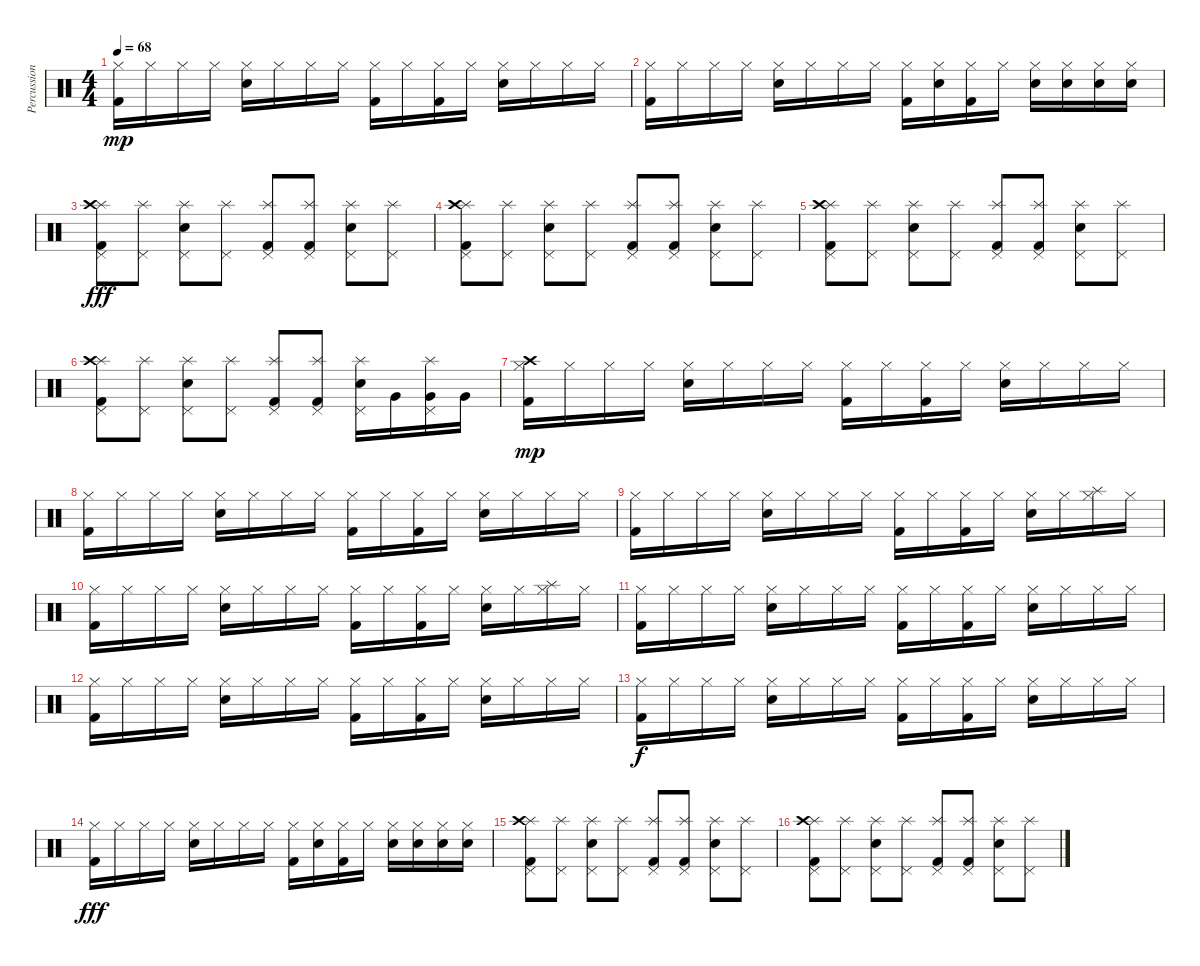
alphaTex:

\track ("Percussion" "Percussion") {instrument percussion}
\staff {score}
\articulation defaults
\ts (4 4)
\tempo 68
\clef neutral
\ks c
("Hi-Hat (closed)" "Kick (hit) 2").16{dy mp} "Hi-Hat (closed)".16 "Hi-Hat (closed)".16 "Hi-Hat (closed)".16 ("Hi-Hat (closed)" "Electric Snare (hit)").16 "Hi-Hat (closed)".16 "Hi-Hat (closed)".16 "Hi-Hat (closed)".16 ("Hi-Hat (closed)" "Kick (hit) 2").16 "Hi-Hat (closed)".16 ("Hi-Hat (closed)" "Kick (hit) 2").16 "Hi-Hat (closed)".16 ("Hi-Hat (closed)" "Electric Snare (hit)").16 "Hi-Hat (closed)".16 "Hi-Hat (closed)".16 "Hi-Hat (closed)".16 |
("Hi-Hat (closed)" "Kick (hit) 2").16 "Hi-Hat (closed)".16 "Hi-Hat (closed)".16 "Hi-Hat (closed)".16 ("Hi-Hat (closed)" "Electric Snare (hit)").16 "Hi-Hat (closed)".16 "Hi-Hat (closed)".16 "Hi-Hat (closed)".16 ("Hi-Hat (closed)" "Kick (hit) 2").16 ("Hi-Hat (closed)" "Electric Snare (hit)").16 ("Hi-Hat (closed)" "Kick (hit) 2").16 "Hi-Hat (closed)".16 ("Hi-Hat (closed)" "Electric Snare (hit)").16 ("Hi-Hat (closed)" "Electric Snare (hit)").16 ("Hi-Hat (closed)" "Electric Snare (hit)").16 ("Hi-Hat (closed)" "Electric Snare (hit)").16 |
("Splash (hit)" "Crash high (hit)" "Pedal Hi-Hat (hit)" "Kick (hit) 2").8{dy fff} ("Splash (hit)" "Pedal Hi-Hat (hit)").8 ("Splash (hit)" "Pedal Hi-Hat (hit)" "Electric Snare (hit)").8 ("Splash (hit)" "Pedal Hi-Hat (hit)").8 ("Splash (hit)" "Pedal Hi-Hat (hit)" "Kick (hit) 2").8 ("Splash (hit)" "Pedal Hi-Hat (hit)" "Kick (hit) 2").8 ("Splash (hit)" "Pedal Hi-Hat (hit)" "Electric Snare (hit)").8 ("Splash (hit)" "Pedal Hi-Hat (hit)").8 |
("Splash (hit)" "Crash high (hit)" "Pedal Hi-Hat (hit)" "Kick (hit) 2").8 ("Splash (hit)" "Pedal Hi-Hat (hit)").8 ("Splash (hit)" "Pedal Hi-Hat (hit)" "Electric Snare (hit)").8 ("Splash (hit)" "Pedal Hi-Hat (hit)").8 ("Splash (hit)" "Pedal Hi-Hat (hit)" "Kick (hit) 2").8 ("Splash (hit)" "Pedal Hi-Hat (hit)" "Kick (hit) 2").8 ("Splash (hit)" "Pedal Hi-Hat (hit)" "Electric Snare (hit)").8 ("Splash (hit)" "Pedal Hi-Hat (hit)").8 |
("Splash (hit)" "Crash high (hit)" "Pedal Hi-Hat (hit)" "Kick (hit) 2").8 ("Splash (hit)" "Pedal Hi-Hat (hit)").8 ("Splash (hit)" "Pedal Hi-Hat (hit)" "Electric Snare (hit)").8 ("Splash (hit)" "Pedal Hi-Hat (hit)").8 ("Splash (hit)" "Pedal Hi-Hat (hit)" "Kick (hit) 2").8 ("Splash (hit)" "Pedal Hi-Hat (hit)" "Kick (hit) 2").8 ("Splash (hit)" "Pedal Hi-Hat (hit)" "Electric Snare (hit)").8 ("Splash (hit)" "Pedal Hi-Hat (hit)").8 |
("Splash (hit)" "Crash high (hit)" "Pedal Hi-Hat (hit)" "Kick (hit) 2").8 ("Splash (hit)" "Pedal Hi-Hat (hit)").8 ("Splash (hit)" "Pedal Hi-Hat (hit)" "Electric Snare (hit)").8 ("Splash (hit)" "Pedal Hi-Hat (hit)").8 ("Splash (hit)" "Pedal Hi-Hat (hit)" "Kick (hit) 2").8 ("Splash (hit)" "Pedal Hi-Hat (hit)" "Kick (hit) 2").8 ("Splash (hit)" "Pedal Hi-Hat (hit)" "Electric Snare (hit)").16 "Very Low Tom (hit)".16 ("Splash (hit)" "Pedal Hi-Hat (hit)" "Very Low Tom (hit)").16 "Very Low Tom (hit)".16 |
("Crash high (hit)" "Hi-Hat (closed)" "Kick (hit) 2").16{dy mp} "Hi-Hat (closed)".16 "Hi-Hat (closed)".16 "Hi-Hat (closed)".16 ("Hi-Hat (closed)" "Electric Snare (hit)").16 "Hi-Hat (closed)".16 "Hi-Hat (closed)".16 "Hi-Hat (closed)".16 ("Hi-Hat (closed)" "Kick (hit) 2").16 "Hi-Hat (closed)".16 ("Hi-Hat (closed)" "Kick (hit) 2").16 "Hi-Hat (closed)".16 ("Hi-Hat (closed)" "Electric Snare (hit)").16 "Hi-Hat (closed)".16 "Hi-Hat (closed)".16 "Hi-Hat (closed)".16 |
("Hi-Hat (closed)" "Kick (hit) 2").16 "Hi-Hat (closed)".16 "Hi-Hat (closed)".16 "Hi-Hat (closed)".16 ("Hi-Hat (closed)" "Electric Snare (hit)").16 "Hi-Hat (closed)".16 "Hi-Hat (closed)".16 "Hi-Hat (closed)".16 ("Hi-Hat (closed)" "Kick (hit) 2").16 "Hi-Hat (closed)".16 ("Hi-Hat (closed)" "Kick (hit) 2").16 "Hi-Hat (closed)".16 ("Hi-Hat (closed)" "Electric Snare (hit)").16 "Hi-Hat (closed)".16 "Hi-Hat (closed)".16 "Hi-Hat (closed)".16 |
("Hi-Hat (closed)" "Kick (hit) 2").16 "Hi-Hat (closed)".16 "Hi-Hat (closed)".16 "Hi-Hat (closed)".16 ("Hi-Hat (closed)" "Electric Snare (hit)").16 "Hi-Hat (closed)".16 "Hi-Hat (closed)".16 "Hi-Hat (closed)".16 ("Hi-Hat (closed)" "Kick (hit) 2").16 "Hi-Hat (closed)".16 ("Hi-Hat (closed)" "Kick (hit) 2").16 "Hi-Hat (closed)".16 ("Hi-Hat (closed)" "Electric Snare (hit)").16 "Hi-Hat (closed)".16 ("Splash (hit)" "Hi-Hat (closed)").16 "Hi-Hat (closed)".16 |
("Hi-Hat (closed)" "Kick (hit) 2").16 "Hi-Hat (closed)".16 "Hi-Hat (closed)".16 "Hi-Hat (closed)".16 ("Hi-Hat (closed)" "Electric Snare (hit)").16 "Hi-Hat (closed)".16 "Hi-Hat (closed)".16 "Hi-Hat (closed)".16 ("Hi-Hat (closed)" "Kick (hit) 2").16 "Hi-Hat (closed)".16 ("Hi-Hat (closed)" "Kick (hit) 2").16 "Hi-Hat (closed)".16 ("Hi-Hat (closed)" "Electric Snare (hit)").16 "Hi-Hat (closed)".16 ("Splash (hit)" "Hi-Hat (closed)").16 "Hi-Hat (closed)".16 |
("Hi-Hat (closed)" "Kick (hit) 2").16 "Hi-Hat (closed)".16 "Hi-Hat (closed)".16 "Hi-Hat (closed)".16 ("Hi-Hat (closed)" "Electric Snare (hit)").16 "Hi-Hat (closed)".16 "Hi-Hat (closed)".16 "Hi-Hat (closed)".16 ("Hi-Hat (closed)" "Kick (hit) 2").16 "Hi-Hat (closed)".16 ("Hi-Hat (closed)" "Kick (hit) 2").16 "Hi-Hat (closed)".16 ("Hi-Hat (closed)" "Electric Snare (hit)").16 "Hi-Hat (closed)".16 "Hi-Hat (closed)".16 "Hi-Hat (closed)".16 |
("Hi-Hat (closed)" "Kick (hit) 2").16 "Hi-Hat (closed)".16 "Hi-Hat (closed)".16 "Hi-Hat (closed)".16 ("Hi-Hat (closed)" "Electric Snare (hit)").16 "Hi-Hat (closed)".16 "Hi-Hat (closed)".16 "Hi-Hat (closed)".16 ("Hi-Hat (closed)" "Kick (hit) 2").16 "Hi-Hat (closed)".16 ("Hi-Hat (closed)" "Kick (hit) 2").16 "Hi-Hat (closed)".16 ("Hi-Hat (closed)" "Electric Snare (hit)").16 "Hi-Hat (closed)".16 "Hi-Hat (closed)".16 "Hi-Hat (closed)".16 |
("Hi-Hat (closed)" "Kick (hit) 2").16{dy f} "Hi-Hat (closed)".16 "Hi-Hat (closed)".16 "Hi-Hat (closed)".16 ("Hi-Hat (closed)" "Electric Snare (hit)").16 "Hi-Hat (closed)".16 "Hi-Hat (closed)".16 "Hi-Hat (closed)".16 ("Hi-Hat (closed)" "Kick (hit) 2").16 "Hi-Hat (closed)".16 ("Hi-Hat (closed)" "Kick (hit) 2").16 "Hi-Hat (closed)".16 ("Hi-Hat (closed)" "Electric Snare (hit)").16 "Hi-Hat (closed)".16 "Hi-Hat (closed)".16 "Hi-Hat (closed)".16 |
("Hi-Hat (closed)" "Kick (hit) 2").16{dy fff} "Hi-Hat (closed)".16 "Hi-Hat (closed)".16 "Hi-Hat (closed)".16 ("Hi-Hat (closed)" "Electric Snare (hit)").16 "Hi-Hat (closed)".16 "Hi-Hat (closed)".16 "Hi-Hat (closed)".16 ("Hi-Hat (closed)" "Kick (hit) 2").16 ("Hi-Hat (closed)" "Electric Snare (hit)").16 ("Hi-Hat (closed)" "Kick (hit) 2").16 "Hi-Hat (closed)".16 ("Hi-Hat (closed)" "Electric Snare (hit)").16 ("Hi-Hat (closed)" "Electric Snare (hit)").16 ("Hi-Hat (closed)" "Electric Snare (hit)").16 ("Hi-Hat (closed)" "Electric Snare (hit)").16 |
("Splash (hit)" "Crash high (hit)" "Pedal Hi-Hat (hit)" "Kick (hit) 2").8 ("Splash (hit)" "Pedal Hi-Hat (hit)").8 ("Splash (hit)" "Pedal Hi-Hat (hit)" "Electric Snare (hit)").8 ("Splash (hit)" "Pedal Hi-Hat (hit)").8 ("Splash (hit)" "Pedal Hi-Hat (hit)" "Kick (hit) 2").8 ("Splash (hit)" "Pedal Hi-Hat (hit)" "Kick (hit) 2").8 ("Splash (hit)" "Pedal Hi-Hat (hit)" "Electric Snare (hit)").8 ("Splash (hit)" "Pedal Hi-Hat (hit)").8 |
("Splash (hit)" "Crash high (hit)" "Pedal Hi-Hat (hit)" "Kick (hit) 2").8 ("Splash (hit)" "Pedal Hi-Hat (hit)").8 ("Splash (hit)" "Pedal Hi-Hat (hit)" "Electric Snare (hit)").8 ("Splash (hit)" "Pedal Hi-Hat (hit)").8 ("Splash (hit)" "Pedal Hi-Hat (hit)" "Kick (hit) 2").8 ("Splash (hit)" "Pedal Hi-Hat (hit)" "Kick (hit) 2").8 ("Splash (hit)" "Pedal Hi-Hat (hit)" "Electric Snare (hit)").8 ("Splash (hit)" "Pedal Hi-Hat (hit)").8
